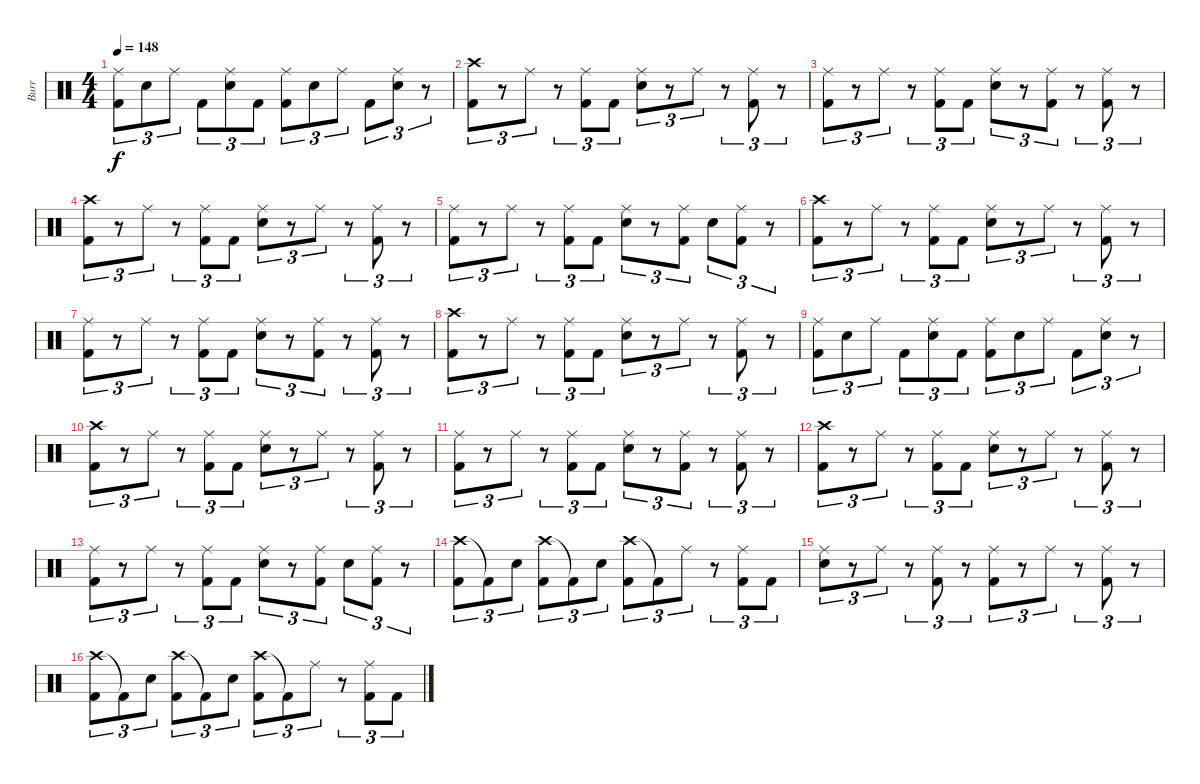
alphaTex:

\track ("Burr" "Burr") {instrument percussion}
\staff {score}
\articulation defaults
\ts (4 4)
\tempo 148
\clef neutral
\ks c
("Ride (middle)" "Kick (hit) 2").8{tu (3 2) dy f} "Snare (hit) 2".8{tu (3 2)} "Ride (middle)".8{tu (3 2)} "Kick (hit) 2".8{tu (3 2)} ("Ride (middle)" "Snare (hit) 2").8{tu (3 2)} "Kick (hit) 2".8{tu (3 2)} ("Ride (middle)" "Kick (hit) 2").8{tu (3 2)} "Snare (hit) 2".8{tu (3 2)} "Ride (middle)".8{tu (3 2)} "Kick (hit) 2".8{tu (3 2)} ("Ride (middle)" "Snare (hit) 2").8{tu (3 2)} r.8{tu (3 2)} |
("Crash high (hit)" "Kick (hit) 2").8{tu (3 2)} r.8{tu (3 2)} "Ride (middle)".8{tu (3 2)} r.8{tu (3 2)} ("Ride (middle)" "Kick (hit) 2").8{tu (3 2)} "Kick (hit) 2".8{tu (3 2)} ("Ride (middle)" "Snare (hit) 2").8{tu (3 2)} r.8{tu (3 2)} "Ride (middle)".8{tu (3 2)} r.8{tu (3 2)} ("Ride (middle)" "Kick (hit) 2").8{tu (3 2)} r.8{tu (3 2)} |
("Ride (middle)" "Kick (hit) 2").8{tu (3 2)} r.8{tu (3 2)} "Ride (middle)".8{tu (3 2)} r.8{tu (3 2)} ("Ride (middle)" "Kick (hit) 2").8{tu (3 2)} "Kick (hit) 2".8{tu (3 2)} ("Ride (middle)" "Snare (hit) 2").8{tu (3 2)} r.8{tu (3 2)} ("Ride (middle)" "Kick (hit) 2").8{tu (3 2)} r.8{tu (3 2)} ("Ride (middle)" "Kick (hit) 2").8{tu (3 2)} r.8{tu (3 2)} |
("Crash high (hit)" "Kick (hit) 2").8{tu (3 2)} r.8{tu (3 2)} "Ride (middle)".8{tu (3 2)} r.8{tu (3 2)} ("Ride (middle)" "Kick (hit) 2").8{tu (3 2)} "Kick (hit) 2".8{tu (3 2)} ("Ride (middle)" "Snare (hit) 2").8{tu (3 2)} r.8{tu (3 2)} "Ride (middle)".8{tu (3 2)} r.8{tu (3 2)} ("Ride (middle)" "Kick (hit) 2").8{tu (3 2)} r.8{tu (3 2)} |
("Ride (middle)" "Kick (hit) 2").8{tu (3 2)} r.8{tu (3 2)} "Ride (middle)".8{tu (3 2)} r.8{tu (3 2)} ("Ride (middle)" "Kick (hit) 2").8{tu (3 2)} "Kick (hit) 2".8{tu (3 2)} ("Ride (middle)" "Snare (hit) 2").8{tu (3 2)} r.8{tu (3 2)} ("Ride (middle)" "Kick (hit) 2").8{tu (3 2)} "Snare (hit) 2".8{tu (3 2)} ("Ride (middle)" "Kick (hit) 2").8{tu (3 2)} r.8{tu (3 2)} |
("Crash high (hit)" "Kick (hit) 2").8{tu (3 2)} r.8{tu (3 2)} "Ride (middle)".8{tu (3 2)} r.8{tu (3 2)} ("Ride (middle)" "Kick (hit) 2").8{tu (3 2)} "Kick (hit) 2".8{tu (3 2)} ("Ride (middle)" "Snare (hit) 2").8{tu (3 2)} r.8{tu (3 2)} "Ride (middle)".8{tu (3 2)} r.8{tu (3 2)} ("Ride (middle)" "Kick (hit) 2").8{tu (3 2)} r.8{tu (3 2)} |
("Ride (middle)" "Kick (hit) 2").8{tu (3 2)} r.8{tu (3 2)} "Ride (middle)".8{tu (3 2)} r.8{tu (3 2)} ("Ride (middle)" "Kick (hit) 2").8{tu (3 2)} "Kick (hit) 2".8{tu (3 2)} ("Ride (middle)" "Snare (hit) 2").8{tu (3 2)} r.8{tu (3 2)} ("Ride (middle)" "Kick (hit) 2").8{tu (3 2)} r.8{tu (3 2)} ("Ride (middle)" "Kick (hit) 2").8{tu (3 2)} r.8{tu (3 2)} |
("Crash high (hit)" "Kick (hit) 2").8{tu (3 2)} r.8{tu (3 2)} "Ride (middle)".8{tu (3 2)} r.8{tu (3 2)} ("Ride (middle)" "Kick (hit) 2").8{tu (3 2)} "Kick (hit) 2".8{tu (3 2)} ("Ride (middle)" "Snare (hit) 2").8{tu (3 2)} r.8{tu (3 2)} "Ride (middle)".8{tu (3 2)} r.8{tu (3 2)} ("Ride (middle)" "Kick (hit) 2").8{tu (3 2)} r.8{tu (3 2)} |
("Ride (middle)" "Kick (hit) 2").8{tu (3 2)} "Snare (hit) 2".8{tu (3 2)} "Ride (middle)".8{tu (3 2)} "Kick (hit) 2".8{tu (3 2)} ("Ride (middle)" "Snare (hit) 2").8{tu (3 2)} "Kick (hit) 2".8{tu (3 2)} ("Ride (middle)" "Kick (hit) 2").8{tu (3 2)} "Snare (hit) 2".8{tu (3 2)} "Ride (middle)".8{tu (3 2)} "Kick (hit) 2".8{tu (3 2)} ("Ride (middle)" "Snare (hit) 2").8{tu (3 2)} r.8{tu (3 2)} |
("Crash high (hit)" "Kick (hit) 2").8{tu (3 2)} r.8{tu (3 2)} "Ride (middle)".8{tu (3 2)} r.8{tu (3 2)} ("Ride (middle)" "Kick (hit) 2").8{tu (3 2)} "Kick (hit) 2".8{tu (3 2)} ("Ride (middle)" "Snare (hit) 2").8{tu (3 2)} r.8{tu (3 2)} "Ride (middle)".8{tu (3 2)} r.8{tu (3 2)} ("Ride (middle)" "Kick (hit) 2").8{tu (3 2)} r.8{tu (3 2)} |
("Ride (middle)" "Kick (hit) 2").8{tu (3 2)} r.8{tu (3 2)} "Ride (middle)".8{tu (3 2)} r.8{tu (3 2)} ("Ride (middle)" "Kick (hit) 2").8{tu (3 2)} "Kick (hit) 2".8{tu (3 2)} ("Ride (middle)" "Snare (hit) 2").8{tu (3 2)} r.8{tu (3 2)} ("Ride (middle)" "Kick (hit) 2").8{tu (3 2)} r.8{tu (3 2)} ("Ride (middle)" "Kick (hit) 2").8{tu (3 2)} r.8{tu (3 2)} |
("Crash high (hit)" "Kick (hit) 2").8{tu (3 2)} r.8{tu (3 2)} "Ride (middle)".8{tu (3 2)} r.8{tu (3 2)} ("Ride (middle)" "Kick (hit) 2").8{tu (3 2)} "Kick (hit) 2".8{tu (3 2)} ("Ride (middle)" "Snare (hit) 2").8{tu (3 2)} r.8{tu (3 2)} "Ride (middle)".8{tu (3 2)} r.8{tu (3 2)} ("Ride (middle)" "Kick (hit) 2").8{tu (3 2)} r.8{tu (3 2)} |
("Ride (middle)" "Kick (hit) 2").8{tu (3 2)} r.8{tu (3 2)} "Ride (middle)".8{tu (3 2)} r.8{tu (3 2)} ("Ride (middle)" "Kick (hit) 2").8{tu (3 2)} "Kick (hit) 2".8{tu (3 2)} ("Ride (middle)" "Snare (hit) 2").8{tu (3 2)} r.8{tu (3 2)} ("Ride (middle)" "Kick (hit) 2").8{tu (3 2)} "Snare (hit) 2".8{tu (3 2)} ("Ride (middle)" "Kick (hit) 2").8{tu (3 2)} r.8{tu (3 2)} |
("Crash high (hit)" "Kick (hit) 2").8{tu (3 2)} "Kick (hit) 2"{t}.8{tu (3 2)} "Snare (hit) 2".8{tu (3 2)} ("Crash high (hit)" "Kick (hit) 2").8{tu (3 2)} "Kick (hit) 2"{t}.8{tu (3 2)} "Snare (hit) 2".8{tu (3 2)} ("Crash high (hit)" "Kick (hit) 2").8{tu (3 2)} "Kick (hit) 2"{t}.8{tu (3 2)} "Ride (middle)".8{tu (3 2)} r.8{tu (3 2)} ("Ride (middle)" "Kick (hit) 2").8{tu (3 2)} "Kick (hit) 2".8{tu (3 2)} |
("Ride (middle)" "Snare (hit) 2").8{tu (3 2)} r.8{tu (3 2)} "Ride (middle)".8{tu (3 2)} r.8{tu (3 2)} ("Ride (middle)" "Kick (hit) 2").8{tu (3 2)} r.8{tu (3 2)} ("Ride (middle)" "Kick (hit) 2").8{tu (3 2)} r.8{tu (3 2)} "Ride (middle)".8{tu (3 2)} r.8{tu (3 2)} ("Ride (middle)" "Kick (hit) 2").8{tu (3 2)} r.8{tu (3 2)} |
("Crash high (hit)" "Kick (hit) 2").8{tu (3 2)} "Kick (hit) 2"{t}.8{tu (3 2)} "Snare (hit) 2".8{tu (3 2)} ("Crash high (hit)" "Kick (hit) 2").8{tu (3 2)} "Kick (hit) 2"{t}.8{tu (3 2)} "Snare (hit) 2".8{tu (3 2)} ("Crash high (hit)" "Kick (hit) 2").8{tu (3 2)} "Kick (hit) 2"{t}.8{tu (3 2)} "Ride (middle)".8{tu (3 2)} r.8{tu (3 2)} ("Ride (middle)" "Kick (hit) 2").8{tu (3 2)} "Kick (hit) 2".8{tu (3 2)}
